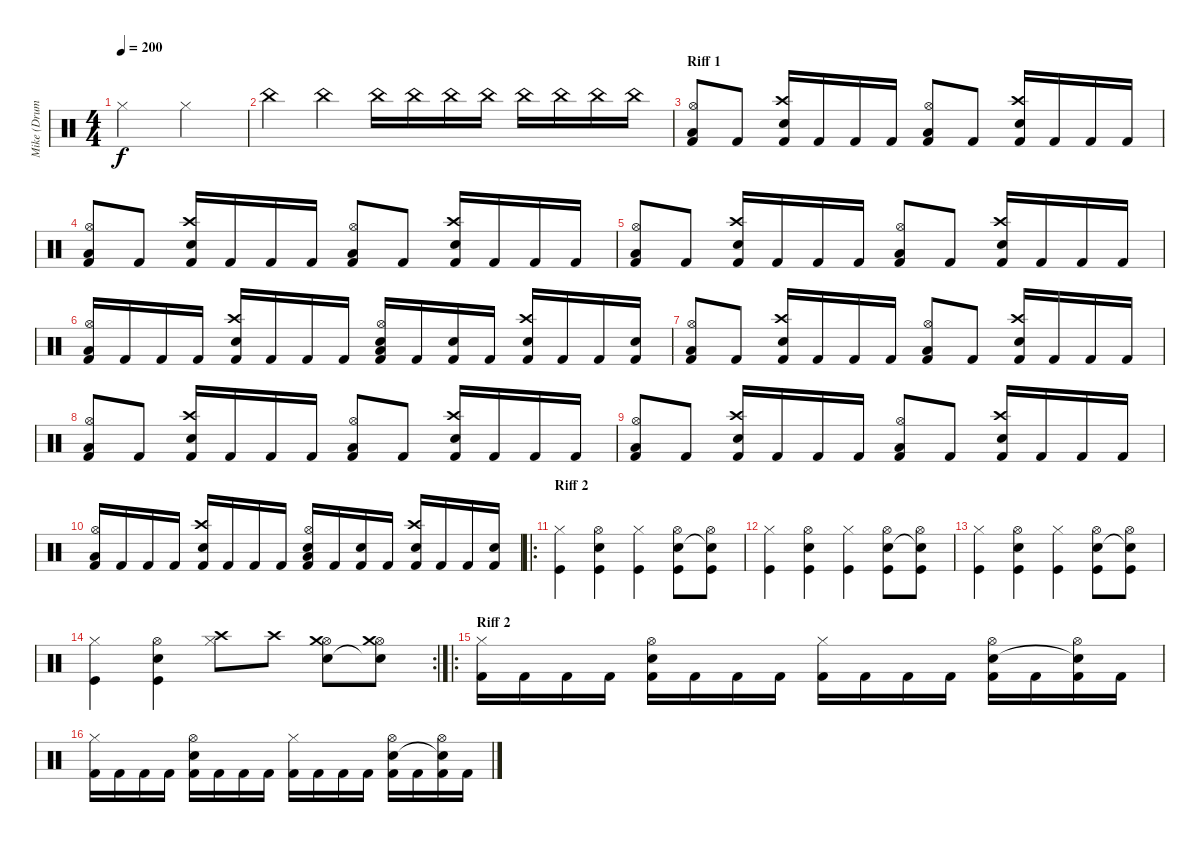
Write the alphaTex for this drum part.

\track ("Mike (Drums)" "Mike (Drum") {instrument percussion}
\staff {score}
\articulation defaults
\ts (4 4)
\tempo 200
\clef neutral
\ks c "Hi-Hat (closed)".2{dy f} "Hi-Hat (closed)".2
|
"China (hit)".4 "China (hit)".4 "China (hit)".16 "China (hit)".16 "China (hit)".16 "China (hit)".16 "China (hit)".16 "China (hit)".16 "China (hit)".16 "China (hit)".16 |
\section ("" "Riff 1")
("Low Tom (hit)" "Hi-Hat (open)" "Kick (hit) 2").8 "Kick (hit) 2".8 ("Crash high (hit)" "Snare (hit) 2" "Kick (hit) 2").16 "Kick (hit) 2".16 "Kick (hit) 2".16 "Kick (hit) 2".16 ("Low Tom (hit)" "Hi-Hat (open)" "Kick (hit) 2").8 "Kick (hit) 2".8 ("Crash high (hit)" "Snare (hit) 2" "Kick (hit) 2").16 "Kick (hit) 2".16 "Kick (hit) 2".16 "Kick (hit) 2".16 |
("Low Tom (hit)" "Hi-Hat (open)" "Kick (hit) 2").8 "Kick (hit) 2".8 ("Crash high (hit)" "Snare (hit) 2" "Kick (hit) 2").16 "Kick (hit) 2".16 "Kick (hit) 2".16 "Kick (hit) 2".16 ("Low Tom (hit)" "Hi-Hat (open)" "Kick (hit) 2").8 "Kick (hit) 2".8 ("Crash high (hit)" "Snare (hit) 2" "Kick (hit) 2").16 "Kick (hit) 2".16 "Kick (hit) 2".16 "Kick (hit) 2".16 |
("Low Tom (hit)" "Hi-Hat (open)" "Kick (hit) 2").8 "Kick (hit) 2".8 ("Crash high (hit)" "Snare (hit) 2" "Kick (hit) 2").16 "Kick (hit) 2".16 "Kick (hit) 2".16 "Kick (hit) 2".16 ("Low Tom (hit)" "Hi-Hat (open)" "Kick (hit) 2").8 "Kick (hit) 2".8 ("Crash high (hit)" "Snare (hit) 2" "Kick (hit) 2").16 "Kick (hit) 2".16 "Kick (hit) 2".16 "Kick (hit) 2".16 |
("Low Tom (hit)" "Hi-Hat (open)" "Kick (hit) 2").16 "Kick (hit) 2".16 "Kick (hit) 2".16 "Kick (hit) 2".16 ("Crash high (hit)" "Snare (hit) 2" "Kick (hit) 2").16 "Kick (hit) 2".16 "Kick (hit) 2".16 "Kick (hit) 2".16 ("Low Tom (hit)" "Snare (hit) 2" "Hi-Hat (open)" "Kick (hit) 2").16 "Kick (hit) 2".16 ("Snare (hit) 2" "Kick (hit) 2").16 "Kick (hit) 2".16 ("Crash high (hit)" "Snare (hit) 2" "Kick (hit) 2").16 "Kick (hit) 2".16 "Kick (hit) 2".16 ("Snare (hit) 2" "Kick (hit) 2").16 |
("Low Tom (hit)" "Hi-Hat (open)" "Kick (hit) 2").8 "Kick (hit) 2".8 ("Crash high (hit)" "Snare (hit) 2" "Kick (hit) 2").16 "Kick (hit) 2".16 "Kick (hit) 2".16 "Kick (hit) 2".16 ("Low Tom (hit)" "Hi-Hat (open)" "Kick (hit) 2").8 "Kick (hit) 2".8 ("Crash high (hit)" "Snare (hit) 2" "Kick (hit) 2").16 "Kick (hit) 2".16 "Kick (hit) 2".16 "Kick (hit) 2".16 |
("Low Tom (hit)" "Hi-Hat (open)" "Kick (hit) 2").8 "Kick (hit) 2".8 ("Crash high (hit)" "Snare (hit) 2" "Kick (hit) 2").16 "Kick (hit) 2".16 "Kick (hit) 2".16 "Kick (hit) 2".16 ("Low Tom (hit)" "Hi-Hat (open)" "Kick (hit) 2").8 "Kick (hit) 2".8 ("Crash high (hit)" "Snare (hit) 2" "Kick (hit) 2").16 "Kick (hit) 2".16 "Kick (hit) 2".16 "Kick (hit) 2".16 |
("Low Tom (hit)" "Hi-Hat (open)" "Kick (hit) 2").8 "Kick (hit) 2".8 ("Crash high (hit)" "Snare (hit) 2" "Kick (hit) 2").16 "Kick (hit) 2".16 "Kick (hit) 2".16 "Kick (hit) 2".16 ("Low Tom (hit)" "Hi-Hat (open)" "Kick (hit) 2").8 "Kick (hit) 2".8 ("Crash high (hit)" "Snare (hit) 2" "Kick (hit) 2").16 "Kick (hit) 2".16 "Kick (hit) 2".16 "Kick (hit) 2".16 |
("Low Tom (hit)" "Hi-Hat (open)" "Kick (hit) 2").16 "Kick (hit) 2".16 "Kick (hit) 2".16 "Kick (hit) 2".16 ("Crash high (hit)" "Snare (hit) 2" "Kick (hit) 2").16 "Kick (hit) 2".16 "Kick (hit) 2".16 "Kick (hit) 2".16 ("Low Tom (hit)" "Snare (hit) 2" "Hi-Hat (open)" "Kick (hit) 2").16 "Kick (hit) 2".16 ("Snare (hit) 2" "Kick (hit) 2").16 "Kick (hit) 2".16 ("Crash high (hit)" "Snare (hit) 2" "Kick (hit) 2").16 "Kick (hit) 2".16 "Kick (hit) 2".16 ("Snare (hit) 2" "Kick (hit) 2").16 |
\ro
\section ("" "Riff 2")
("Hi-Hat (closed)" "Kick (hit)").4 ("Hi-Hat (open)" "Snare (hit) 2" "Kick (hit)").4 ("Hi-Hat (closed)" "Kick (hit)").4 ("Hi-Hat (open)" "Snare (hit) 2" "Kick (hit)").8 ("Hi-Hat (open)" "Snare (hit)"{t} "Kick (hit)").8 |
("Hi-Hat (closed)" "Kick (hit)").4 ("Hi-Hat (open)" "Snare (hit) 2" "Kick (hit)").4 ("Hi-Hat (closed)" "Kick (hit)").4 ("Hi-Hat (open)" "Snare (hit) 2" "Kick (hit)").8 ("Hi-Hat (open)" "Snare (hit)"{t} "Kick (hit)").8 |
("Hi-Hat (closed)" "Kick (hit)").4 ("Hi-Hat (open)" "Snare (hit) 2" "Kick (hit)").4 ("Hi-Hat (closed)" "Kick (hit)").4 ("Hi-Hat (open)" "Snare (hit) 2" "Kick (hit)").8 ("Hi-Hat (open)" "Snare (hit)"{t} "Kick (hit)").8 |
\rc 2
("Hi-Hat (closed)" "Kick (hit)").4 ("Hi-Hat (open)" "Snare (hit) 2" "Kick (hit)").4 ("Hi-Hat (closed)" "Crash high (hit)").8 "Crash high (hit)".8 ("Hi-Hat (open)" "Snare (hit) 2" "Crash medium (hit)").8 ("Hi-Hat (open)" "Snare (hit)"{t} "Crash medium (hit)").8 |
\ro
\section ("" "Riff 2 ")
("Hi-Hat (closed)" "Kick (hit) 2").16 "Kick (hit) 2".16 "Kick (hit) 2".16 "Kick (hit) 2".16 ("Hi-Hat (open)" "Snare (hit) 2" "Kick (hit) 2").16 "Kick (hit) 2".16 "Kick (hit) 2".16 "Kick (hit) 2".16 ("Hi-Hat (closed)" "Kick (hit) 2").16 "Kick (hit) 2".16 "Kick (hit) 2".16 "Kick (hit) 2".16 ("Hi-Hat (open)" "Snare (hit) 2" "Kick (hit) 2").16 "Kick (hit) 2".16 ("Hi-Hat (open)" "Snare (hit)"{t} "Kick (hit) 2").16 "Kick (hit) 2".16 |
("Hi-Hat (closed)" "Kick (hit) 2").16 "Kick (hit) 2".16 "Kick (hit) 2".16 "Kick (hit) 2".16 ("Hi-Hat (open)" "Snare (hit) 2" "Kick (hit) 2").16 "Kick (hit) 2".16 "Kick (hit) 2".16 "Kick (hit) 2".16 ("Hi-Hat (closed)" "Kick (hit) 2").16 "Kick (hit) 2".16 "Kick (hit) 2".16 "Kick (hit) 2".16 ("Hi-Hat (open)" "Snare (hit) 2" "Kick (hit) 2").16 "Kick (hit) 2".16 ("Hi-Hat (open)" "Snare (hit)"{t} "Kick (hit) 2").16 "Kick (hit) 2".16
